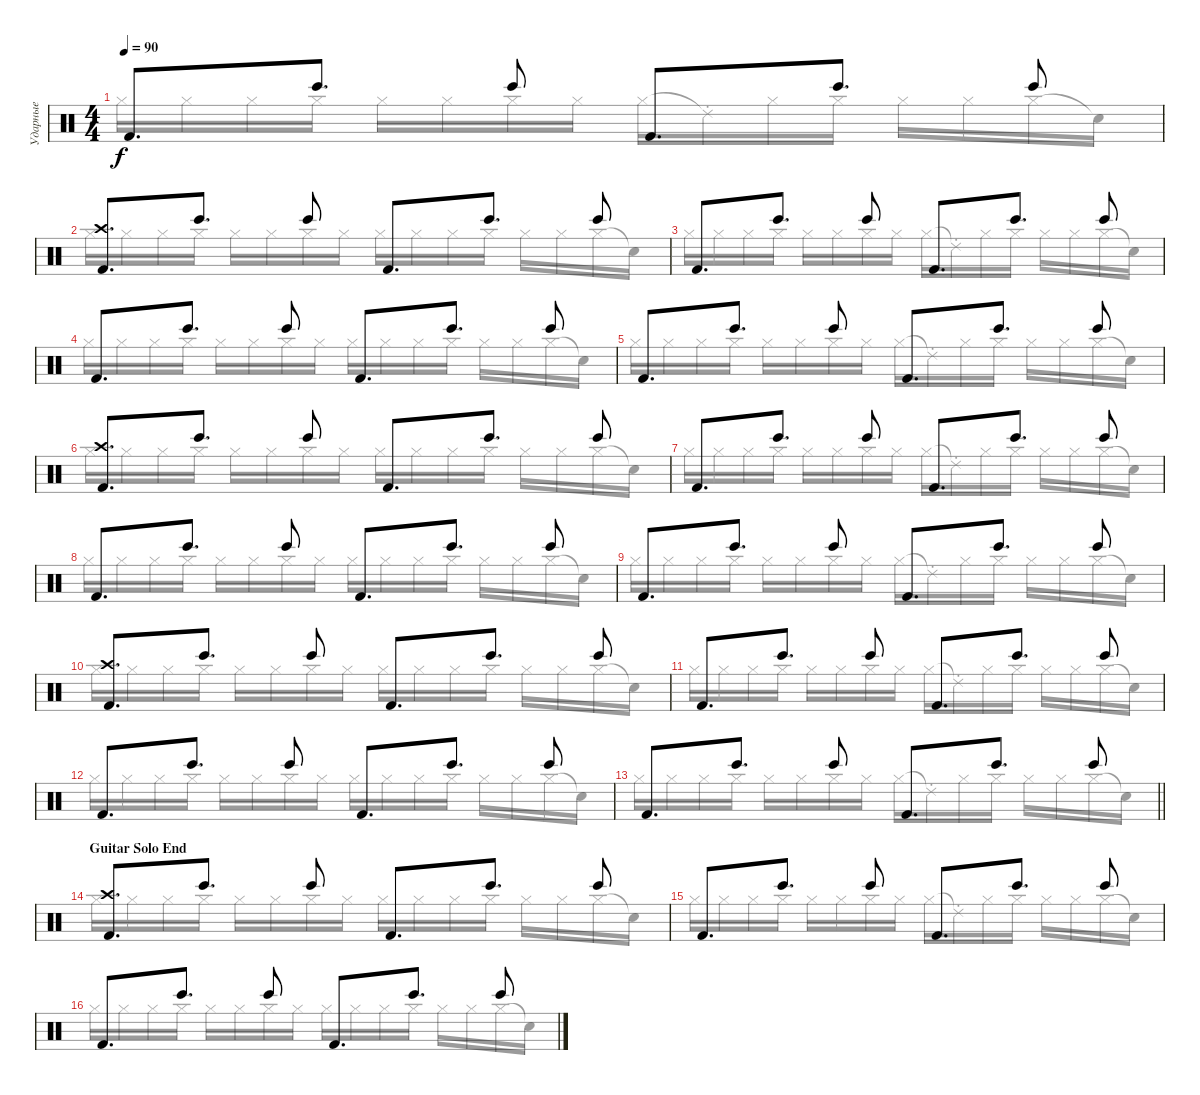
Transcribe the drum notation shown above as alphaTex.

\track ("Ударные" "Ударные") {instrument percussion}
\staff {score}
\articulation defaults
\voice
\ts (4 4)
\tempo 90
\clef neutral
\ks c "Kick (hit) 2".8{d dy f} "Bongo High (hit)".8{d} "Bongo High (hit)".8 "Kick (hit) 2".8{d} "Bongo High (hit)".8{d} "Bongo High (hit)".8
|
("Kick (hit) 2" "Crash high (hit)").8{d} "Bongo High (hit)".8{d} "Bongo High (hit)".8 "Kick (hit) 2".8{d} "Bongo High (hit)".8{d} "Bongo High (hit)".8 |
"Kick (hit) 2".8{d} "Bongo High (hit)".8{d} "Bongo High (hit)".8 "Kick (hit) 2".8{d} "Bongo High (hit)".8{d} "Bongo High (hit)".8 |
"Kick (hit) 2".8{d} "Bongo High (hit)".8{d} "Bongo High (hit)".8 "Kick (hit) 2".8{d} "Bongo High (hit)".8{d} "Bongo High (hit)".8 |
"Kick (hit) 2".8{d} "Bongo High (hit)".8{d} "Bongo High (hit)".8 "Kick (hit) 2".8{d} "Bongo High (hit)".8{d} "Bongo High (hit)".8 |
("Kick (hit) 2" "Crash high (hit)").8{d} "Bongo High (hit)".8{d} "Bongo High (hit)".8 "Kick (hit) 2".8{d} "Bongo High (hit)".8{d} "Bongo High (hit)".8 |
"Kick (hit) 2".8{d} "Bongo High (hit)".8{d} "Bongo High (hit)".8 "Kick (hit) 2".8{d} "Bongo High (hit)".8{d} "Bongo High (hit)".8 |
"Kick (hit) 2".8{d} "Bongo High (hit)".8{d} "Bongo High (hit)".8 "Kick (hit) 2".8{d} "Bongo High (hit)".8{d} "Bongo High (hit)".8 |
"Kick (hit) 2".8{d} "Bongo High (hit)".8{d} "Bongo High (hit)".8 "Kick (hit) 2".8{d} "Bongo High (hit)".8{d} "Bongo High (hit)".8 |
("Kick (hit) 2" "Crash high (hit)").8{d} "Bongo High (hit)".8{d} "Bongo High (hit)".8 "Kick (hit) 2".8{d} "Bongo High (hit)".8{d} "Bongo High (hit)".8 |
"Kick (hit) 2".8{d} "Bongo High (hit)".8{d} "Bongo High (hit)".8 "Kick (hit) 2".8{d} "Bongo High (hit)".8{d} "Bongo High (hit)".8 |
"Kick (hit) 2".8{d} "Bongo High (hit)".8{d} "Bongo High (hit)".8 "Kick (hit) 2".8{d} "Bongo High (hit)".8{d} "Bongo High (hit)".8 |
\barLineRight lightlight "Kick (hit) 2".8{d} "Bongo High (hit)".8{d} "Bongo High (hit)".8 "Kick (hit) 2".8{d} "Bongo High (hit)".8{d} "Bongo High (hit)".8
|
\section ("" "Guitar Solo End")
("Kick (hit) 2" "Crash high (hit)").8{d} "Bongo High (hit)".8{d} "Bongo High (hit)".8 "Kick (hit) 2".8{d} "Bongo High (hit)".8{d} "Bongo High (hit)".8 |
"Kick (hit) 2".8{d} "Bongo High (hit)".8{d} "Bongo High (hit)".8 "Kick (hit) 2".8{d} "Bongo High (hit)".8{d} "Bongo High (hit)".8 |
"Kick (hit) 2".8{d} "Bongo High (hit)".8{d} "Bongo High (hit)".8 "Kick (hit) 2".8{d} "Bongo High (hit)".8{d} "Bongo High (hit)".8
\voice
\clef neutral
\ottava regular
\simile none
\ks c "Hi-Hat (closed)".16{dy f} "Hi-Hat (closed)".16 "Hi-Hat (closed)".16 "Hi-Hat (closed)".16 "Hi-Hat (closed)".16 "Hi-Hat (closed)".16 "Hi-Hat (closed)".16 "Hi-Hat (closed)".16 "Hi-Hat (closed)".16 "Ride (choke) 2"{t}.16 "Hi-Hat (closed)".16 "Hi-Hat (closed)".16 "Hi-Hat (closed)".16 "Hi-Hat (closed)".16 "Hi-Hat (closed)".16 "Snare (hit)"{t}.16
|
"Hi-Hat (closed)".16 "Hi-Hat (closed)".16 "Hi-Hat (closed)".16 "Hi-Hat (closed)".16 "Hi-Hat (closed)".16 "Hi-Hat (closed)".16 "Hi-Hat (closed)".16 "Hi-Hat (closed)".16 "Hi-Hat (closed)".16 "Hi-Hat (closed)".16 "Hi-Hat (closed)".16 "Hi-Hat (closed)".16 "Hi-Hat (closed)".16 "Hi-Hat (closed)".16 "Hi-Hat (closed)".16 "Snare (hit)"{t}.16 |
"Hi-Hat (closed)".16 "Hi-Hat (closed)".16 "Hi-Hat (closed)".16 "Hi-Hat (closed)".16 "Hi-Hat (closed)".16 "Hi-Hat (closed)".16 "Hi-Hat (closed)".16 "Hi-Hat (closed)".16 "Hi-Hat (closed)".16 "Ride (choke) 2"{t}.16 "Hi-Hat (closed)".16 "Hi-Hat (closed)".16 "Hi-Hat (closed)".16 "Hi-Hat (closed)".16 "Hi-Hat (closed)".16 "Snare (hit)"{t}.16 |
"Hi-Hat (closed)".16 "Hi-Hat (closed)".16 "Hi-Hat (closed)".16 "Hi-Hat (closed)".16 "Hi-Hat (closed)".16 "Hi-Hat (closed)".16 "Hi-Hat (closed)".16 "Hi-Hat (closed)".16 "Hi-Hat (closed)".16 "Hi-Hat (closed)".16 "Hi-Hat (closed)".16 "Hi-Hat (closed)".16 "Hi-Hat (closed)".16 "Hi-Hat (closed)".16 "Hi-Hat (closed)".16 "Snare (hit)"{t}.16 |
"Hi-Hat (closed)".16 "Hi-Hat (closed)".16 "Hi-Hat (closed)".16 "Hi-Hat (closed)".16 "Hi-Hat (closed)".16 "Hi-Hat (closed)".16 "Hi-Hat (closed)".16 "Hi-Hat (closed)".16 "Hi-Hat (closed)".16 "Ride (choke) 2"{t}.16 "Hi-Hat (closed)".16 "Hi-Hat (closed)".16 "Hi-Hat (closed)".16 "Hi-Hat (closed)".16 "Hi-Hat (closed)".16 "Snare (hit)"{t}.16 |
"Hi-Hat (closed)".16 "Hi-Hat (closed)".16 "Hi-Hat (closed)".16 "Hi-Hat (closed)".16 "Hi-Hat (closed)".16 "Hi-Hat (closed)".16 "Hi-Hat (closed)".16 "Hi-Hat (closed)".16 "Hi-Hat (closed)".16 "Hi-Hat (closed)".16 "Hi-Hat (closed)".16 "Hi-Hat (closed)".16 "Hi-Hat (closed)".16 "Hi-Hat (closed)".16 "Hi-Hat (closed)".16 "Snare (hit)"{t}.16 |
"Hi-Hat (closed)".16 "Hi-Hat (closed)".16 "Hi-Hat (closed)".16 "Hi-Hat (closed)".16 "Hi-Hat (closed)".16 "Hi-Hat (closed)".16 "Hi-Hat (closed)".16 "Hi-Hat (closed)".16 "Hi-Hat (closed)".16 "Ride (choke) 2"{t}.16 "Hi-Hat (closed)".16 "Hi-Hat (closed)".16 "Hi-Hat (closed)".16 "Hi-Hat (closed)".16 "Hi-Hat (closed)".16 "Snare (hit)"{t}.16 |
"Hi-Hat (closed)".16 "Hi-Hat (closed)".16 "Hi-Hat (closed)".16 "Hi-Hat (closed)".16 "Hi-Hat (closed)".16 "Hi-Hat (closed)".16 "Hi-Hat (closed)".16 "Hi-Hat (closed)".16 "Hi-Hat (closed)".16 "Hi-Hat (closed)".16 "Hi-Hat (closed)".16 "Hi-Hat (closed)".16 "Hi-Hat (closed)".16 "Hi-Hat (closed)".16 "Hi-Hat (closed)".16 "Snare (hit)"{t}.16 |
"Hi-Hat (closed)".16 "Hi-Hat (closed)".16 "Hi-Hat (closed)".16 "Hi-Hat (closed)".16 "Hi-Hat (closed)".16 "Hi-Hat (closed)".16 "Hi-Hat (closed)".16 "Hi-Hat (closed)".16 "Hi-Hat (closed)".16 "Ride (choke) 2"{t}.16 "Hi-Hat (closed)".16 "Hi-Hat (closed)".16 "Hi-Hat (closed)".16 "Hi-Hat (closed)".16 "Hi-Hat (closed)".16 "Snare (hit)"{t}.16 |
"Hi-Hat (closed)".16 "Hi-Hat (closed)".16 "Hi-Hat (closed)".16 "Hi-Hat (closed)".16 "Hi-Hat (closed)".16 "Hi-Hat (closed)".16 "Hi-Hat (closed)".16 "Hi-Hat (closed)".16 "Hi-Hat (closed)".16 "Hi-Hat (closed)".16 "Hi-Hat (closed)".16 "Hi-Hat (closed)".16 "Hi-Hat (closed)".16 "Hi-Hat (closed)".16 "Hi-Hat (closed)".16 "Snare (hit)"{t}.16 |
"Hi-Hat (closed)".16 "Hi-Hat (closed)".16 "Hi-Hat (closed)".16 "Hi-Hat (closed)".16 "Hi-Hat (closed)".16 "Hi-Hat (closed)".16 "Hi-Hat (closed)".16 "Hi-Hat (closed)".16 "Hi-Hat (closed)".16 "Ride (choke) 2"{t}.16 "Hi-Hat (closed)".16 "Hi-Hat (closed)".16 "Hi-Hat (closed)".16 "Hi-Hat (closed)".16 "Hi-Hat (closed)".16 "Snare (hit)"{t}.16 |
"Hi-Hat (closed)".16 "Hi-Hat (closed)".16 "Hi-Hat (closed)".16 "Hi-Hat (closed)".16 "Hi-Hat (closed)".16 "Hi-Hat (closed)".16 "Hi-Hat (closed)".16 "Hi-Hat (closed)".16 "Hi-Hat (closed)".16 "Hi-Hat (closed)".16 "Hi-Hat (closed)".16 "Hi-Hat (closed)".16 "Hi-Hat (closed)".16 "Hi-Hat (closed)".16 "Hi-Hat (closed)".16 "Snare (hit)"{t}.16 |
\barLineRight lightlight "Hi-Hat (closed)".16 "Hi-Hat (closed)".16 "Hi-Hat (closed)".16 "Hi-Hat (closed)".16 "Hi-Hat (closed)".16 "Hi-Hat (closed)".16 "Hi-Hat (closed)".16 "Hi-Hat (closed)".16 "Hi-Hat (closed)".16 "Ride (choke) 2"{t}.16 "Hi-Hat (closed)".16 "Hi-Hat (closed)".16 "Hi-Hat (closed)".16 "Hi-Hat (closed)".16 "Hi-Hat (closed)".16 "Snare (hit)"{t}.16
|
"Hi-Hat (closed)".16 "Hi-Hat (closed)".16 "Hi-Hat (closed)".16 "Hi-Hat (closed)".16 "Hi-Hat (closed)".16 "Hi-Hat (closed)".16 "Hi-Hat (closed)".16 "Hi-Hat (closed)".16 "Hi-Hat (closed)".16 "Hi-Hat (closed)".16 "Hi-Hat (closed)".16 "Hi-Hat (closed)".16 "Hi-Hat (closed)".16 "Hi-Hat (closed)".16 "Hi-Hat (closed)".16 "Snare (hit)"{t}.16 |
"Hi-Hat (closed)".16 "Hi-Hat (closed)".16 "Hi-Hat (closed)".16 "Hi-Hat (closed)".16 "Hi-Hat (closed)".16 "Hi-Hat (closed)".16 "Hi-Hat (closed)".16 "Hi-Hat (closed)".16 "Hi-Hat (closed)".16 "Ride (choke) 2"{t}.16 "Hi-Hat (closed)".16 "Hi-Hat (closed)".16 "Hi-Hat (closed)".16 "Hi-Hat (closed)".16 "Hi-Hat (closed)".16 "Snare (hit)"{t}.16 |
"Hi-Hat (closed)".16 "Hi-Hat (closed)".16 "Hi-Hat (closed)".16 "Hi-Hat (closed)".16 "Hi-Hat (closed)".16 "Hi-Hat (closed)".16 "Hi-Hat (closed)".16 "Hi-Hat (closed)".16 "Hi-Hat (closed)".16 "Hi-Hat (closed)".16 "Hi-Hat (closed)".16 "Hi-Hat (closed)".16 "Hi-Hat (closed)".16 "Hi-Hat (closed)".16 "Hi-Hat (closed)".16 "Snare (hit)"{t}.16
